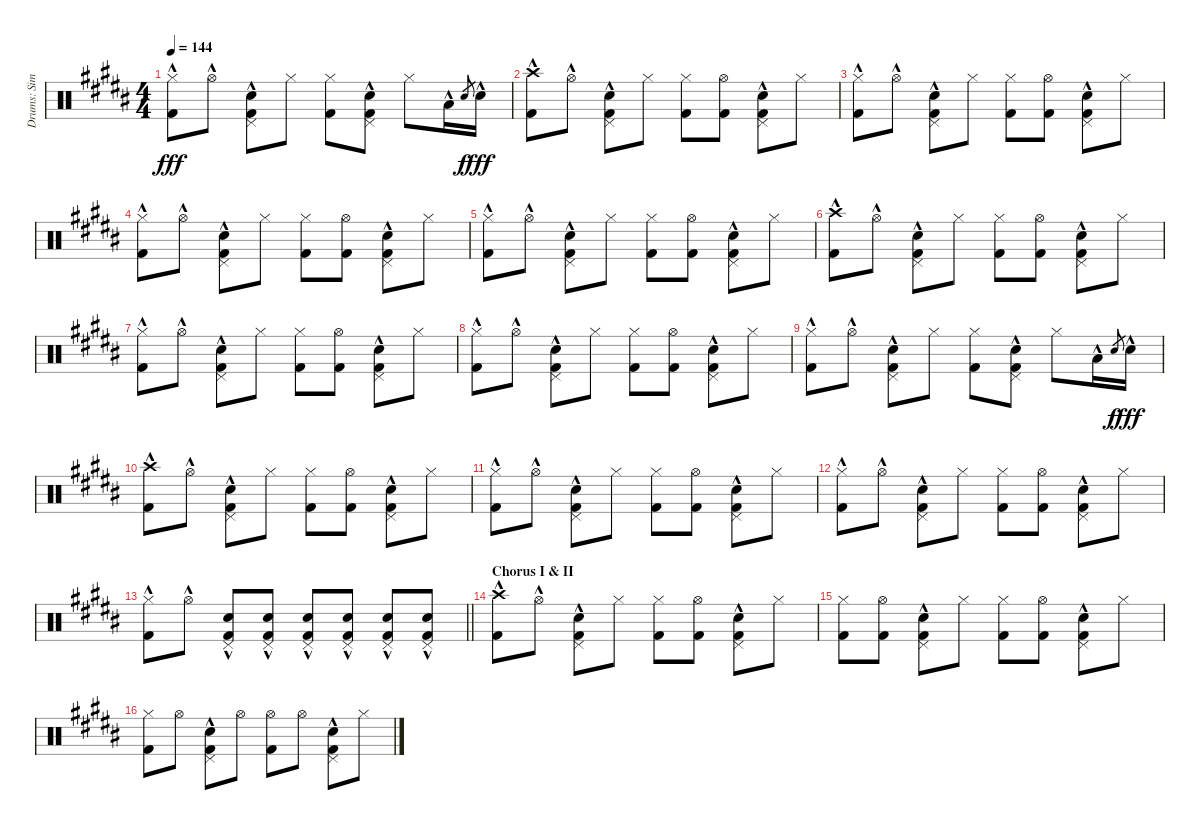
\track ("Drums: Simon" "Drums: Sim") {instrument percussion}
\staff {score}
\articulation defaults
\ts (4 4)
\tempo 144
\clef neutral
\ks b
("Hi-Hat (closed)" "Kick (hit) 2"{hac}).8{dy fff} "Hi-Hat (open)"{hac}.8 ("Pedal Hi-Hat (hit)"{hac} "Snare (hit) 2"{hac} "Kick (hit) 2"{hac}).8 "Hi-Hat (closed)".8 ("Hi-Hat (closed)" "Kick (hit) 2").8 ("Pedal Hi-Hat (hit)"{hac} "Snare (hit) 2"{hac} "Kick (hit) 2"{hac}).8 "Hi-Hat (closed)".8 "Low Tom (hit)"{hac}.16 "Snare (hit) 2".8{gr dy f} "Snare (hit) 2"{hac}.16{dy fff} |
("Crash high (hit)"{hac} "Kick (hit) 2"{hac}).8 "Hi-Hat (open)"{hac}.8 ("Pedal Hi-Hat (hit)"{hac} "Snare (hit) 2"{hac} "Kick (hit) 2"{hac}).8 "Hi-Hat (closed)".8 ("Hi-Hat (closed)" "Kick (hit) 2").8 ("Hi-Hat (open)" "Kick (hit) 2").8 ("Pedal Hi-Hat (hit)"{hac} "Snare (hit) 2"{hac} "Kick (hit) 2"{hac}).8 "Hi-Hat (closed)".8 |
("Hi-Hat (closed)" "Kick (hit) 2"{hac}).8 "Hi-Hat (open)"{hac}.8 ("Pedal Hi-Hat (hit)"{hac} "Snare (hit) 2"{hac} "Kick (hit) 2"{hac}).8 "Hi-Hat (closed)".8 ("Hi-Hat (closed)" "Kick (hit) 2").8 ("Hi-Hat (open)" "Kick (hit) 2").8 ("Pedal Hi-Hat (hit)"{hac} "Snare (hit) 2"{hac} "Kick (hit) 2"{hac}).8 "Hi-Hat (closed)".8 |
("Hi-Hat (closed)" "Kick (hit) 2"{hac}).8 "Hi-Hat (open)"{hac}.8 ("Pedal Hi-Hat (hit)"{hac} "Snare (hit) 2"{hac} "Kick (hit) 2"{hac}).8 "Hi-Hat (closed)".8 ("Hi-Hat (closed)" "Kick (hit) 2").8 ("Hi-Hat (open)" "Kick (hit) 2").8 ("Pedal Hi-Hat (hit)"{hac} "Snare (hit) 2"{hac} "Kick (hit) 2"{hac}).8 "Hi-Hat (closed)".8 |
("Hi-Hat (closed)" "Kick (hit) 2"{hac}).8 "Hi-Hat (open)"{hac}.8 ("Pedal Hi-Hat (hit)"{hac} "Snare (hit) 2"{hac} "Kick (hit) 2"{hac}).8 "Hi-Hat (closed)".8 ("Hi-Hat (closed)" "Kick (hit) 2").8 ("Hi-Hat (open)" "Kick (hit) 2").8 ("Pedal Hi-Hat (hit)"{hac} "Snare (hit) 2"{hac} "Kick (hit) 2"{hac}).8 "Hi-Hat (closed)".8 |
("Crash high (hit)"{hac} "Kick (hit) 2"{hac}).8 "Hi-Hat (open)"{hac}.8 ("Pedal Hi-Hat (hit)"{hac} "Snare (hit) 2"{hac} "Kick (hit) 2"{hac}).8 "Hi-Hat (closed)".8 ("Hi-Hat (closed)" "Kick (hit) 2").8 ("Hi-Hat (open)" "Kick (hit) 2").8 ("Pedal Hi-Hat (hit)"{hac} "Snare (hit) 2"{hac} "Kick (hit) 2"{hac}).8 "Hi-Hat (closed)".8 |
("Hi-Hat (closed)" "Kick (hit) 2"{hac}).8 "Hi-Hat (open)"{hac}.8 ("Pedal Hi-Hat (hit)"{hac} "Snare (hit) 2"{hac} "Kick (hit) 2"{hac}).8 "Hi-Hat (closed)".8 ("Hi-Hat (closed)" "Kick (hit) 2").8 ("Hi-Hat (open)" "Kick (hit) 2").8 ("Pedal Hi-Hat (hit)"{hac} "Snare (hit) 2"{hac} "Kick (hit) 2"{hac}).8 "Hi-Hat (closed)".8 |
("Hi-Hat (closed)" "Kick (hit) 2"{hac}).8 "Hi-Hat (open)"{hac}.8 ("Pedal Hi-Hat (hit)"{hac} "Snare (hit) 2"{hac} "Kick (hit) 2"{hac}).8 "Hi-Hat (closed)".8 ("Hi-Hat (closed)" "Kick (hit) 2").8 ("Hi-Hat (open)" "Kick (hit) 2").8 ("Pedal Hi-Hat (hit)"{hac} "Snare (hit) 2"{hac} "Kick (hit) 2"{hac}).8 "Hi-Hat (closed)".8 |
("Hi-Hat (closed)" "Kick (hit) 2"{hac}).8 "Hi-Hat (open)"{hac}.8 ("Pedal Hi-Hat (hit)"{hac} "Snare (hit) 2"{hac} "Kick (hit) 2"{hac}).8 "Hi-Hat (closed)".8 ("Hi-Hat (closed)" "Kick (hit) 2").8 ("Pedal Hi-Hat (hit)"{hac} "Snare (hit) 2"{hac} "Kick (hit) 2"{hac}).8 "Hi-Hat (closed)".8 "Low Tom (hit)"{hac}.16 "Snare (hit) 2".8{gr dy f} "Snare (hit) 2"{hac}.16{dy fff} |
("Crash high (hit)"{hac} "Kick (hit) 2"{hac}).8 "Hi-Hat (open)"{hac}.8 ("Pedal Hi-Hat (hit)"{hac} "Snare (hit) 2"{hac} "Kick (hit) 2"{hac}).8 "Hi-Hat (closed)".8 ("Hi-Hat (closed)" "Kick (hit) 2").8 ("Hi-Hat (open)" "Kick (hit) 2").8 ("Pedal Hi-Hat (hit)"{hac} "Snare (hit) 2"{hac} "Kick (hit) 2"{hac}).8 "Hi-Hat (closed)".8 |
("Hi-Hat (closed)" "Kick (hit) 2"{hac}).8 "Hi-Hat (open)"{hac}.8 ("Pedal Hi-Hat (hit)"{hac} "Snare (hit) 2"{hac} "Kick (hit) 2"{hac}).8 "Hi-Hat (closed)".8 ("Hi-Hat (closed)" "Kick (hit) 2").8 ("Hi-Hat (open)" "Kick (hit) 2").8 ("Pedal Hi-Hat (hit)"{hac} "Snare (hit) 2"{hac} "Kick (hit) 2"{hac}).8 "Hi-Hat (closed)".8 |
("Hi-Hat (closed)" "Kick (hit) 2"{hac}).8 "Hi-Hat (open)"{hac}.8 ("Pedal Hi-Hat (hit)"{hac} "Snare (hit) 2"{hac} "Kick (hit) 2"{hac}).8 "Hi-Hat (closed)".8 ("Hi-Hat (closed)" "Kick (hit) 2").8 ("Hi-Hat (open)" "Kick (hit) 2").8 ("Pedal Hi-Hat (hit)"{hac} "Snare (hit) 2"{hac} "Kick (hit) 2"{hac}).8 "Hi-Hat (closed)".8 |
\barLineRight lightlight
("Hi-Hat (closed)" "Kick (hit) 2"{hac}).8 "Hi-Hat (open)"{hac}.8 ("Pedal Hi-Hat (hit)"{hac} "Snare (hit) 2"{hac} "Kick (hit) 2"{hac}).8 ("Pedal Hi-Hat (hit)"{hac} "Snare (hit) 2"{hac} "Kick (hit) 2"{hac}).8 ("Pedal Hi-Hat (hit)"{hac} "Snare (hit) 2"{hac} "Kick (hit) 2"{hac}).8 ("Pedal Hi-Hat (hit)"{hac} "Snare (hit) 2"{hac} "Kick (hit) 2"{hac}).8 ("Pedal Hi-Hat (hit)"{hac} "Snare (hit) 2"{hac} "Kick (hit) 2"{hac}).8 ("Pedal Hi-Hat (hit)"{hac} "Snare (hit) 2"{hac} "Kick (hit) 2"{hac}).8 |
\section ("" "Chorus I & II")
("Crash high (hit)"{hac} "Kick (hit) 2"{hac}).8 "Hi-Hat (open)"{hac}.8 ("Pedal Hi-Hat (hit)"{hac} "Snare (hit) 2"{hac} "Kick (hit) 2"{hac}).8 "Hi-Hat (closed)".8 ("Hi-Hat (closed)" "Kick (hit) 2").8 ("Hi-Hat (open)" "Kick (hit) 2").8 ("Pedal Hi-Hat (hit)"{hac} "Snare (hit) 2"{hac} "Kick (hit) 2"{hac}).8 "Hi-Hat (closed)".8 |
("Hi-Hat (closed)" "Kick (hit) 2").8 ("Hi-Hat (open)" "Kick (hit) 2").8 ("Pedal Hi-Hat (hit)"{hac} "Snare (hit) 2"{hac} "Kick (hit) 2"{hac}).8 "Hi-Hat (closed)".8 ("Hi-Hat (closed)" "Kick (hit) 2").8 ("Hi-Hat (open)" "Kick (hit) 2").8 ("Pedal Hi-Hat (hit)"{hac} "Snare (hit) 2"{hac} "Kick (hit) 2"{hac}).8 "Hi-Hat (closed)".8 |
("Hi-Hat (closed)" "Kick (hit) 2").8 "Hi-Hat (open)".8 ("Pedal Hi-Hat (hit)"{hac} "Snare (hit) 2"{hac} "Kick (hit) 2"{hac}).8 "Hi-Hat (open)".8 ("Hi-Hat (open)" "Kick (hit) 2").8 "Hi-Hat (open)".8 ("Pedal Hi-Hat (hit)"{hac} "Snare (hit) 2"{hac} "Kick (hit) 2"{hac}).8 "Hi-Hat (closed)".8
